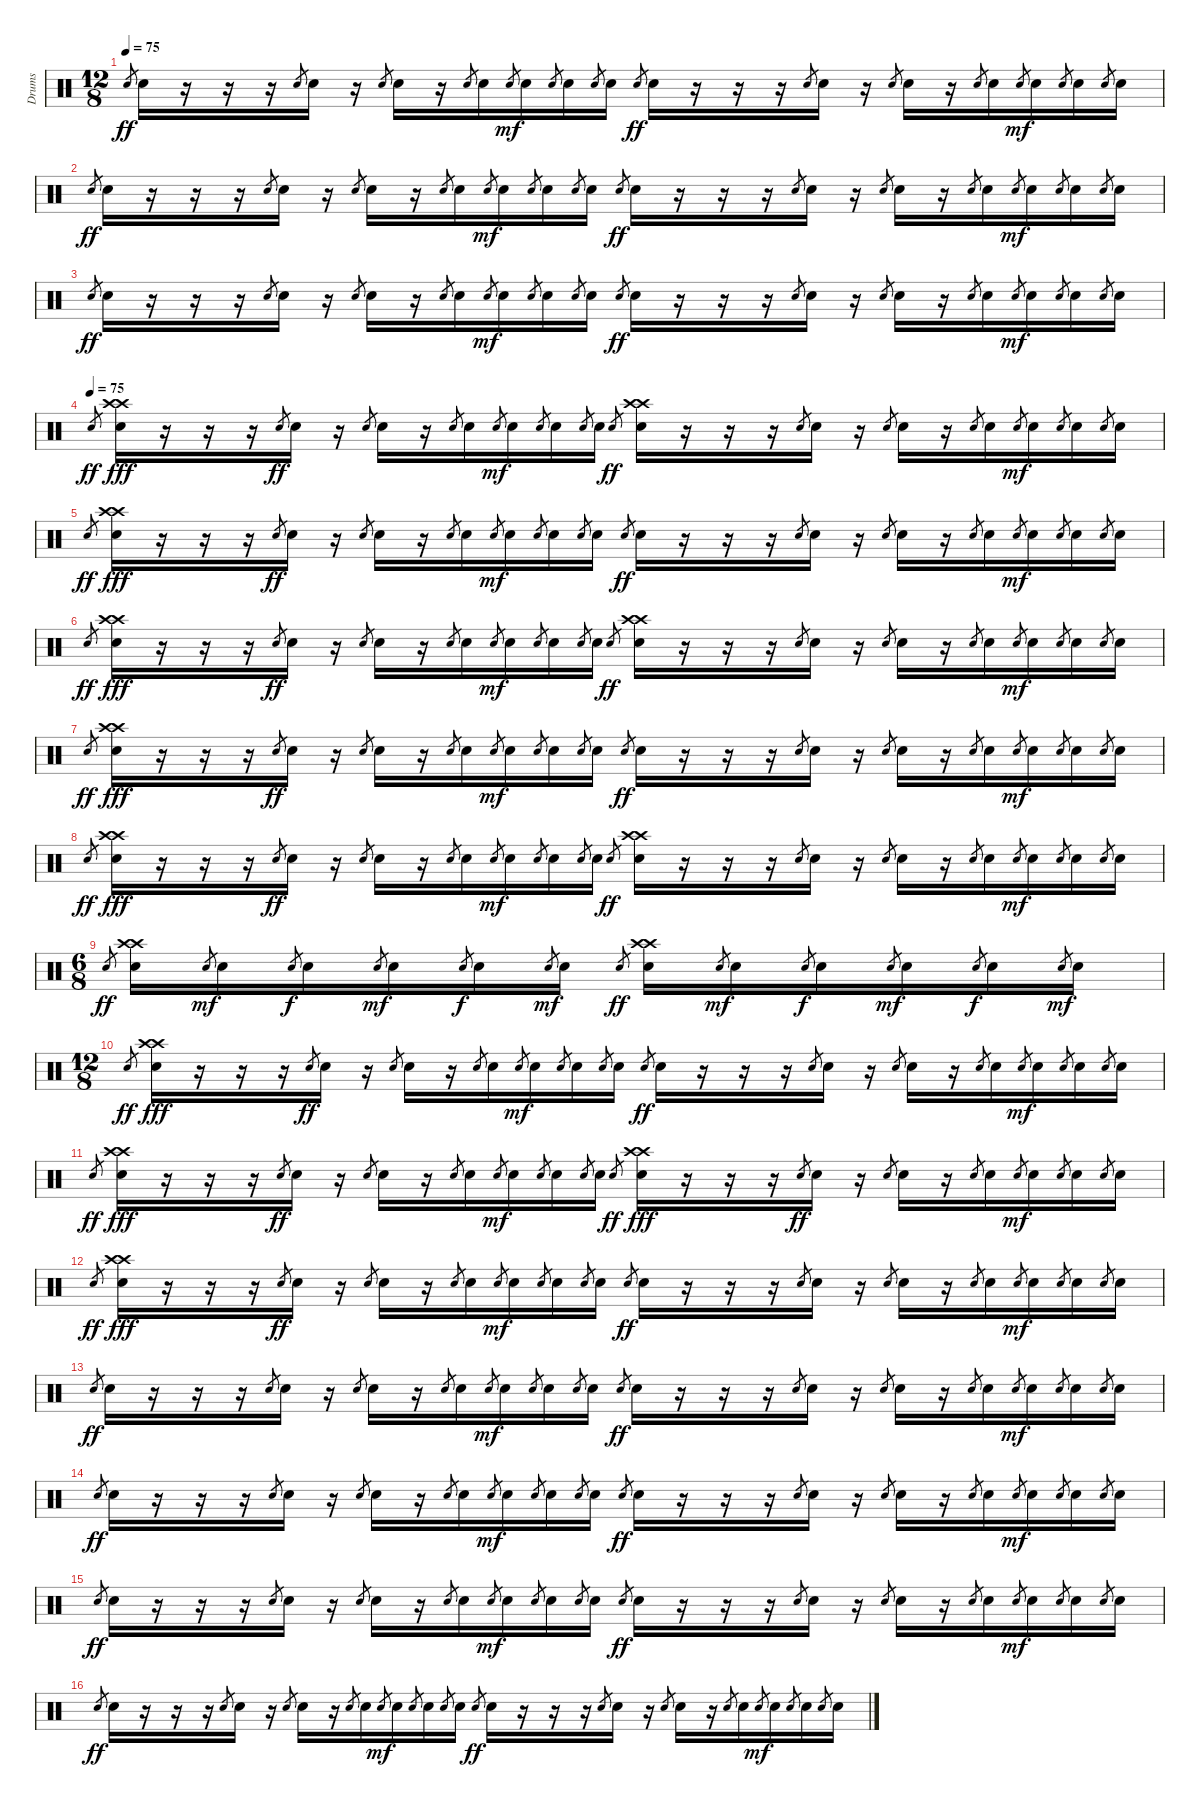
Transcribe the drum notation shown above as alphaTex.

\track ("Drums" "Drums") {instrument percussion}
\staff {score}
\articulation defaults
\ts (12 8)
\tempo 75
\clef neutral
\ks c "Electric Snare (hit)".8{gr dy ff} "Electric Snare (hit)".16
r.16 r.16 r.16 "Electric Snare (hit)".8{gr} "Electric Snare (hit)".16 r.16 "Electric Snare (hit)".8{gr} "Electric Snare (hit)".16 r.16 "Electric Snare (hit)".8{gr} "Electric Snare (hit)".16 "Electric Snare (hit)".8{gr dy mf} "Electric Snare (hit)".16 "Electric Snare (hit)".8{gr} "Electric Snare (hit)".16 "Electric Snare (hit)".8{gr} "Electric Snare (hit)".16 "Electric Snare (hit)".8{gr dy ff} "Electric Snare (hit)".16 r.16 r.16 r.16 "Electric Snare (hit)".8{gr} "Electric Snare (hit)".16 r.16 "Electric Snare (hit)".8{gr} "Electric Snare (hit)".16 r.16 "Electric Snare (hit)".8{gr} "Electric Snare (hit)".16 "Electric Snare (hit)".8{gr dy mf} "Electric Snare (hit)".16 "Electric Snare (hit)".8{gr} "Electric Snare (hit)".16 "Electric Snare (hit)".8{gr} "Electric Snare (hit)".16 |
"Electric Snare (hit)".8{gr dy ff} "Electric Snare (hit)".16 r.16 r.16 r.16 "Electric Snare (hit)".8{gr} "Electric Snare (hit)".16 r.16 "Electric Snare (hit)".8{gr} "Electric Snare (hit)".16 r.16 "Electric Snare (hit)".8{gr} "Electric Snare (hit)".16 "Electric Snare (hit)".8{gr dy mf} "Electric Snare (hit)".16 "Electric Snare (hit)".8{gr} "Electric Snare (hit)".16 "Electric Snare (hit)".8{gr} "Electric Snare (hit)".16 "Electric Snare (hit)".8{gr dy ff} "Electric Snare (hit)".16 r.16 r.16 r.16 "Electric Snare (hit)".8{gr} "Electric Snare (hit)".16 r.16 "Electric Snare (hit)".8{gr} "Electric Snare (hit)".16 r.16 "Electric Snare (hit)".8{gr} "Electric Snare (hit)".16 "Electric Snare (hit)".8{gr dy mf} "Electric Snare (hit)".16 "Electric Snare (hit)".8{gr} "Electric Snare (hit)".16 "Electric Snare (hit)".8{gr} "Electric Snare (hit)".16 |
"Electric Snare (hit)".8{gr dy ff} "Electric Snare (hit)".16 r.16 r.16 r.16 "Electric Snare (hit)".8{gr} "Electric Snare (hit)".16 r.16 "Electric Snare (hit)".8{gr} "Electric Snare (hit)".16 r.16 "Electric Snare (hit)".8{gr} "Electric Snare (hit)".16 "Electric Snare (hit)".8{gr dy mf} "Electric Snare (hit)".16 "Electric Snare (hit)".8{gr} "Electric Snare (hit)".16 "Electric Snare (hit)".8{gr} "Electric Snare (hit)".16 "Electric Snare (hit)".8{gr dy ff} "Electric Snare (hit)".16 r.16 r.16 r.16 "Electric Snare (hit)".8{gr} "Electric Snare (hit)".16 r.16 "Electric Snare (hit)".8{gr} "Electric Snare (hit)".16 r.16 "Electric Snare (hit)".8{gr} "Electric Snare (hit)".16 "Electric Snare (hit)".8{gr dy mf} "Electric Snare (hit)".16 "Electric Snare (hit)".8{gr} "Electric Snare (hit)".16 "Electric Snare (hit)".8{gr} "Electric Snare (hit)".16 |
\tempo (75)
"Electric Snare (hit)".8{gr dy ff} ("Crash high (hit)" "Crash high (hit)" "Electric Snare (hit)").16{dy fff} r.16 r.16 r.16 "Electric Snare (hit)".8{gr dy ff} "Electric Snare (hit)".16 r.16 "Electric Snare (hit)".8{gr} "Electric Snare (hit)".16 r.16 "Electric Snare (hit)".8{gr} "Electric Snare (hit)".16 "Electric Snare (hit)".8{gr dy mf} "Electric Snare (hit)".16 "Electric Snare (hit)".8{gr} "Electric Snare (hit)".16 "Electric Snare (hit)".8{gr} "Electric Snare (hit)".16 "Electric Snare (hit)".8{gr dy ff} ("Crash high (hit)" "Crash high (hit)" "Electric Snare (hit)").16 r.16 r.16 r.16 "Electric Snare (hit)".8{gr} "Electric Snare (hit)".16 r.16 "Electric Snare (hit)".8{gr} "Electric Snare (hit)".16 r.16 "Electric Snare (hit)".8{gr} "Electric Snare (hit)".16 "Electric Snare (hit)".8{gr dy mf} "Electric Snare (hit)".16 "Electric Snare (hit)".8{gr} "Electric Snare (hit)".16 "Electric Snare (hit)".8{gr} "Electric Snare (hit)".16 |
"Electric Snare (hit)".8{gr dy ff} ("Crash high (hit)" "Crash high (hit)" "Electric Snare (hit)").16{dy fff} r.16 r.16 r.16 "Electric Snare (hit)".8{gr dy ff} "Electric Snare (hit)".16 r.16 "Electric Snare (hit)".8{gr} "Electric Snare (hit)".16 r.16 "Electric Snare (hit)".8{gr} "Electric Snare (hit)".16 "Electric Snare (hit)".8{gr dy mf} "Electric Snare (hit)".16 "Electric Snare (hit)".8{gr} "Electric Snare (hit)".16 "Electric Snare (hit)".8{gr} "Electric Snare (hit)".16 "Electric Snare (hit)".8{gr dy ff} "Electric Snare (hit)".16 r.16 r.16 r.16 "Electric Snare (hit)".8{gr} "Electric Snare (hit)".16 r.16 "Electric Snare (hit)".8{gr} "Electric Snare (hit)".16 r.16 "Electric Snare (hit)".8{gr} "Electric Snare (hit)".16 "Electric Snare (hit)".8{gr dy mf} "Electric Snare (hit)".16 "Electric Snare (hit)".8{gr} "Electric Snare (hit)".16 "Electric Snare (hit)".8{gr} "Electric Snare (hit)".16 |
"Electric Snare (hit)".8{gr dy ff} ("Crash high (hit)" "Crash high (hit)" "Electric Snare (hit)").16{dy fff} r.16 r.16 r.16 "Electric Snare (hit)".8{gr dy ff} "Electric Snare (hit)".16 r.16 "Electric Snare (hit)".8{gr} "Electric Snare (hit)".16 r.16 "Electric Snare (hit)".8{gr} "Electric Snare (hit)".16 "Electric Snare (hit)".8{gr dy mf} "Electric Snare (hit)".16 "Electric Snare (hit)".8{gr} "Electric Snare (hit)".16 "Electric Snare (hit)".8{gr} "Electric Snare (hit)".16 "Electric Snare (hit)".8{gr dy ff} ("Crash high (hit)" "Crash high (hit)" "Electric Snare (hit)").16 r.16 r.16 r.16 "Electric Snare (hit)".8{gr} "Electric Snare (hit)".16 r.16 "Electric Snare (hit)".8{gr} "Electric Snare (hit)".16 r.16 "Electric Snare (hit)".8{gr} "Electric Snare (hit)".16 "Electric Snare (hit)".8{gr dy mf} "Electric Snare (hit)".16 "Electric Snare (hit)".8{gr} "Electric Snare (hit)".16 "Electric Snare (hit)".8{gr} "Electric Snare (hit)".16 |
"Electric Snare (hit)".8{gr dy ff} ("Crash high (hit)" "Crash high (hit)" "Electric Snare (hit)").16{dy fff} r.16 r.16 r.16 "Electric Snare (hit)".8{gr dy ff} "Electric Snare (hit)".16 r.16 "Electric Snare (hit)".8{gr} "Electric Snare (hit)".16 r.16 "Electric Snare (hit)".8{gr} "Electric Snare (hit)".16 "Electric Snare (hit)".8{gr dy mf} "Electric Snare (hit)".16 "Electric Snare (hit)".8{gr} "Electric Snare (hit)".16 "Electric Snare (hit)".8{gr} "Electric Snare (hit)".16 "Electric Snare (hit)".8{gr dy ff} "Electric Snare (hit)".16 r.16 r.16 r.16 "Electric Snare (hit)".8{gr} "Electric Snare (hit)".16 r.16 "Electric Snare (hit)".8{gr} "Electric Snare (hit)".16 r.16 "Electric Snare (hit)".8{gr} "Electric Snare (hit)".16 "Electric Snare (hit)".8{gr dy mf} "Electric Snare (hit)".16 "Electric Snare (hit)".8{gr} "Electric Snare (hit)".16 "Electric Snare (hit)".8{gr} "Electric Snare (hit)".16 |
"Electric Snare (hit)".8{gr dy ff} ("Crash high (hit)" "Crash high (hit)" "Electric Snare (hit)").16{dy fff} r.16 r.16 r.16 "Electric Snare (hit)".8{gr dy ff} "Electric Snare (hit)".16 r.16 "Electric Snare (hit)".8{gr} "Electric Snare (hit)".16 r.16 "Electric Snare (hit)".8{gr} "Electric Snare (hit)".16 "Electric Snare (hit)".8{gr dy mf} "Electric Snare (hit)".16 "Electric Snare (hit)".8{gr} "Electric Snare (hit)".16 "Electric Snare (hit)".8{gr} "Electric Snare (hit)".16 "Electric Snare (hit)".8{gr dy ff} ("Crash high (hit)" "Crash high (hit)" "Electric Snare (hit)").16 r.16 r.16 r.16 "Electric Snare (hit)".8{gr} "Electric Snare (hit)".16 r.16 "Electric Snare (hit)".8{gr} "Electric Snare (hit)".16 r.16 "Electric Snare (hit)".8{gr} "Electric Snare (hit)".16 "Electric Snare (hit)".8{gr dy mf} "Electric Snare (hit)".16 "Electric Snare (hit)".8{gr} "Electric Snare (hit)".16 "Electric Snare (hit)".8{gr} "Electric Snare (hit)".16 |
\ts (6 8)
"Electric Snare (hit)".8{gr dy ff} ("Crash high (hit)" "Crash high (hit)" "Electric Snare (hit)").16 "Electric Snare (hit)".8{gr dy mf} "Electric Snare (hit)".16 "Electric Snare (hit)".8{gr dy f} "Electric Snare (hit)".16 "Electric Snare (hit)".8{gr dy mf} "Electric Snare (hit)".16 "Electric Snare (hit)".8{gr dy f} "Electric Snare (hit)".16 "Electric Snare (hit)".8{gr dy mf} "Electric Snare (hit)".16 "Electric Snare (hit)".8{gr dy ff} ("Crash high (hit)" "Crash high (hit)" "Electric Snare (hit)").16 "Electric Snare (hit)".8{gr dy mf} "Electric Snare (hit)".16 "Electric Snare (hit)".8{gr dy f} "Electric Snare (hit)".16 "Electric Snare (hit)".8{gr dy mf} "Electric Snare (hit)".16 "Electric Snare (hit)".8{gr dy f} "Electric Snare (hit)".16 "Electric Snare (hit)".8{gr dy mf} "Electric Snare (hit)".16 |
\ts (12 8)
"Electric Snare (hit)".8{gr dy ff} ("Crash high (hit)" "Crash high (hit)" "Electric Snare (hit)").16{dy fff} r.16 r.16 r.16 "Electric Snare (hit)".8{gr dy ff} "Electric Snare (hit)".16 r.16 "Electric Snare (hit)".8{gr} "Electric Snare (hit)".16 r.16 "Electric Snare (hit)".8{gr} "Electric Snare (hit)".16 "Electric Snare (hit)".8{gr dy mf} "Electric Snare (hit)".16 "Electric Snare (hit)".8{gr} "Electric Snare (hit)".16 "Electric Snare (hit)".8{gr} "Electric Snare (hit)".16 "Electric Snare (hit)".8{gr dy ff} "Electric Snare (hit)".16 r.16 r.16 r.16 "Electric Snare (hit)".8{gr} "Electric Snare (hit)".16 r.16 "Electric Snare (hit)".8{gr} "Electric Snare (hit)".16 r.16 "Electric Snare (hit)".8{gr} "Electric Snare (hit)".16 "Electric Snare (hit)".8{gr dy mf} "Electric Snare (hit)".16 "Electric Snare (hit)".8{gr} "Electric Snare (hit)".16 "Electric Snare (hit)".8{gr} "Electric Snare (hit)".16 |
"Electric Snare (hit)".8{gr dy ff} ("Crash high (hit)" "Crash high (hit)" "Electric Snare (hit)").16{dy fff} r.16 r.16 r.16 "Electric Snare (hit)".8{gr dy ff} "Electric Snare (hit)".16 r.16 "Electric Snare (hit)".8{gr} "Electric Snare (hit)".16 r.16 "Electric Snare (hit)".8{gr} "Electric Snare (hit)".16 "Electric Snare (hit)".8{gr dy mf} "Electric Snare (hit)".16 "Electric Snare (hit)".8{gr} "Electric Snare (hit)".16 "Electric Snare (hit)".8{gr} "Electric Snare (hit)".16 "Electric Snare (hit)".8{gr dy ff} ("Crash high (hit)" "Crash high (hit)" "Electric Snare (hit)").16{dy fff} r.16 r.16 r.16 "Electric Snare (hit)".8{gr dy ff} "Electric Snare (hit)".16 r.16 "Electric Snare (hit)".8{gr} "Electric Snare (hit)".16 r.16 "Electric Snare (hit)".8{gr} "Electric Snare (hit)".16 "Electric Snare (hit)".8{gr dy mf} "Electric Snare (hit)".16 "Electric Snare (hit)".8{gr} "Electric Snare (hit)".16 "Electric Snare (hit)".8{gr} "Electric Snare (hit)".16 |
"Electric Snare (hit)".8{gr dy ff} ("Crash high (hit)" "Crash high (hit)" "Electric Snare (hit)").16{dy fff} r.16 r.16 r.16 "Electric Snare (hit)".8{gr dy ff} "Electric Snare (hit)".16 r.16 "Electric Snare (hit)".8{gr} "Electric Snare (hit)".16 r.16 "Electric Snare (hit)".8{gr} "Electric Snare (hit)".16 "Electric Snare (hit)".8{gr dy mf} "Electric Snare (hit)".16 "Electric Snare (hit)".8{gr} "Electric Snare (hit)".16 "Electric Snare (hit)".8{gr} "Electric Snare (hit)".16 "Electric Snare (hit)".8{gr dy ff} "Electric Snare (hit)".16 r.16 r.16 r.16 "Electric Snare (hit)".8{gr} "Electric Snare (hit)".16 r.16 "Electric Snare (hit)".8{gr} "Electric Snare (hit)".16 r.16 "Electric Snare (hit)".8{gr} "Electric Snare (hit)".16 "Electric Snare (hit)".8{gr dy mf} "Electric Snare (hit)".16 "Electric Snare (hit)".8{gr} "Electric Snare (hit)".16 "Electric Snare (hit)".8{gr} "Electric Snare (hit)".16 |
"Electric Snare (hit)".8{gr dy ff} "Electric Snare (hit)".16 r.16 r.16 r.16 "Electric Snare (hit)".8{gr} "Electric Snare (hit)".16 r.16 "Electric Snare (hit)".8{gr} "Electric Snare (hit)".16 r.16 "Electric Snare (hit)".8{gr} "Electric Snare (hit)".16 "Electric Snare (hit)".8{gr dy mf} "Electric Snare (hit)".16 "Electric Snare (hit)".8{gr} "Electric Snare (hit)".16 "Electric Snare (hit)".8{gr} "Electric Snare (hit)".16 "Electric Snare (hit)".8{gr dy ff} "Electric Snare (hit)".16 r.16 r.16 r.16 "Electric Snare (hit)".8{gr} "Electric Snare (hit)".16 r.16 "Electric Snare (hit)".8{gr} "Electric Snare (hit)".16 r.16 "Electric Snare (hit)".8{gr} "Electric Snare (hit)".16 "Electric Snare (hit)".8{gr dy mf} "Electric Snare (hit)".16 "Electric Snare (hit)".8{gr} "Electric Snare (hit)".16 "Electric Snare (hit)".8{gr} "Electric Snare (hit)".16 |
"Electric Snare (hit)".8{gr dy ff} "Electric Snare (hit)".16{volume 9} r.16 r.16 r.16 "Electric Snare (hit)".8{gr} "Electric Snare (hit)".16 r.16 "Electric Snare (hit)".8{gr} "Electric Snare (hit)".16 r.16 "Electric Snare (hit)".8{gr} "Electric Snare (hit)".16 "Electric Snare (hit)".8{gr dy mf} "Electric Snare (hit)".16 "Electric Snare (hit)".8{gr} "Electric Snare (hit)".16 "Electric Snare (hit)".8{gr} "Electric Snare (hit)".16 "Electric Snare (hit)".8{gr dy ff} "Electric Snare (hit)".16 r.16 r.16 r.16 "Electric Snare (hit)".8{gr} "Electric Snare (hit)".16 r.16 "Electric Snare (hit)".8{gr} "Electric Snare (hit)".16 r.16 "Electric Snare (hit)".8{gr} "Electric Snare (hit)".16 "Electric Snare (hit)".8{gr dy mf} "Electric Snare (hit)".16 "Electric Snare (hit)".8{gr} "Electric Snare (hit)".16 "Electric Snare (hit)".8{gr} "Electric Snare (hit)".16 |
"Electric Snare (hit)".8{gr dy ff} "Electric Snare (hit)".16 r.16 r.16 r.16 "Electric Snare (hit)".8{gr} "Electric Snare (hit)".16 r.16 "Electric Snare (hit)".8{gr} "Electric Snare (hit)".16 r.16 "Electric Snare (hit)".8{gr} "Electric Snare (hit)".16 "Electric Snare (hit)".8{gr dy mf} "Electric Snare (hit)".16 "Electric Snare (hit)".8{gr} "Electric Snare (hit)".16 "Electric Snare (hit)".8{gr} "Electric Snare (hit)".16 "Electric Snare (hit)".8{gr dy ff} "Electric Snare (hit)".16 r.16 r.16 r.16 "Electric Snare (hit)".8{gr} "Electric Snare (hit)".16 r.16 "Electric Snare (hit)".8{gr} "Electric Snare (hit)".16 r.16 "Electric Snare (hit)".8{gr} "Electric Snare (hit)".16 "Electric Snare (hit)".8{gr dy mf} "Electric Snare (hit)".16 "Electric Snare (hit)".8{gr} "Electric Snare (hit)".16 "Electric Snare (hit)".8{gr} "Electric Snare (hit)".16 |
"Electric Snare (hit)".8{gr dy ff} "Electric Snare (hit)".16{volume 0} r.16 r.16 r.16 "Electric Snare (hit)".8{gr} "Electric Snare (hit)".16 r.16 "Electric Snare (hit)".8{gr} "Electric Snare (hit)".16 r.16 "Electric Snare (hit)".8{gr} "Electric Snare (hit)".16 "Electric Snare (hit)".8{gr dy mf} "Electric Snare (hit)".16 "Electric Snare (hit)".8{gr} "Electric Snare (hit)".16 "Electric Snare (hit)".8{gr} "Electric Snare (hit)".16 "Electric Snare (hit)".8{gr dy ff} "Electric Snare (hit)".16 r.16 r.16 r.16 "Electric Snare (hit)".8{gr} "Electric Snare (hit)".16 r.16 "Electric Snare (hit)".8{gr} "Electric Snare (hit)".16 r.16 "Electric Snare (hit)".8{gr} "Electric Snare (hit)".16 "Electric Snare (hit)".8{gr dy mf} "Electric Snare (hit)".16 "Electric Snare (hit)".8{gr} "Electric Snare (hit)".16 "Electric Snare (hit)".8{gr} "Electric Snare (hit)".16
